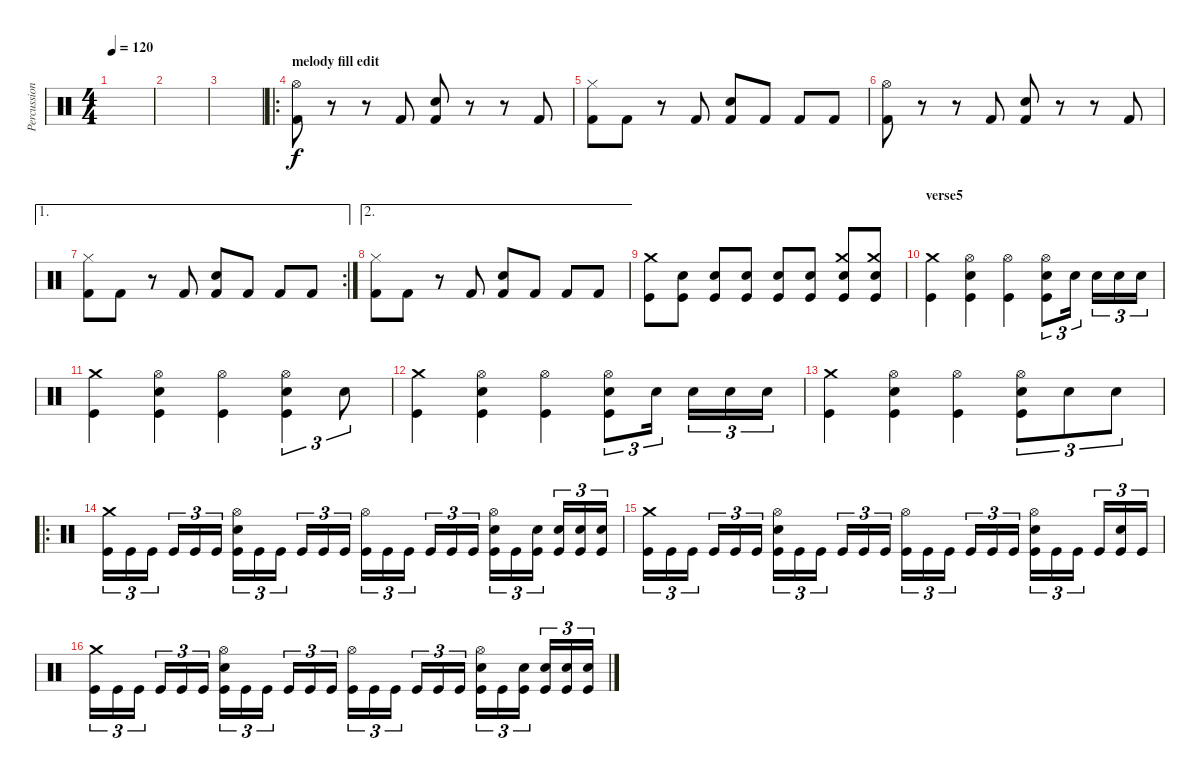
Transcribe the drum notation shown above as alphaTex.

\track ("Percussion" "Percussion") {instrument percussion}
\staff {score}
\articulation defaults
\ts (4 4)
\tempo 120
\clef neutral
\ks c
|
|
|
\ro
\section ("" "melody fill edit")
("Kick (hit) 2" "Hi-Hat (open)").8 r.8 r.8 "Kick (hit) 2".8 ("Kick (hit) 2" "Snare (hit) 2").8 r.8 r.8 "Kick (hit) 2".8 |
("Kick (hit) 2" "Hi-Hat (closed)").8 "Kick (hit) 2".8 r.8 "Kick (hit) 2".8 ("Kick (hit) 2" "Snare (hit) 2").8 "Kick (hit) 2".8 "Kick (hit) 2".8 "Kick (hit) 2".8 |
("Kick (hit) 2" "Hi-Hat (open)").8 r.8 r.8 "Kick (hit) 2".8 ("Kick (hit) 2" "Snare (hit) 2").8 r.8 r.8 "Kick (hit) 2".8 |
\ae 1
\rc 2
("Kick (hit) 2" "Hi-Hat (closed)").8 "Kick (hit) 2".8 r.8 "Kick (hit) 2".8 ("Kick (hit) 2" "Snare (hit) 2").8 "Kick (hit) 2".8 "Kick (hit) 2".8 "Kick (hit) 2".8 |
\ae 2
("Kick (hit) 2" "Hi-Hat (closed)").8 "Kick (hit) 2".8 r.8 "Kick (hit) 2".8 ("Kick (hit) 2" "Snare (hit) 2").8 "Kick (hit) 2".8 "Kick (hit) 2".8 "Kick (hit) 2".8 |
("Crash medium (hit)" "Kick (hit)").8 ("Snare (hit) 2" "Kick (hit)").8 ("Snare (hit) 2" "Kick (hit)").8 ("Snare (hit) 2" "Kick (hit)").8 ("Snare (hit) 2" "Kick (hit)").8 ("Snare (hit) 2" "Kick (hit)").8 ("Crash medium (hit)" "Snare (hit) 2" "Kick (hit)").8 ("Crash medium (hit)" "Snare (hit) 2" "Kick (hit)").8 |
\section ("" "verse5")
("Crash medium (hit)" "Kick (hit)").4 ("Snare (hit) 2" "Hi-Hat (open)" "Kick (hit)").4 ("Hi-Hat (open)" "Kick (hit)").4 ("Snare (hit) 2" "Hi-Hat (open)" "Kick (hit)").8{tu (3 2)} "Snare (hit) 2".16{tu (3 2)} "Snare (hit) 2".16{tu (3 2)} "Snare (hit) 2".16{tu (3 2)} "Snare (hit) 2".16{tu (3 2)} |
("Crash medium (hit)" "Kick (hit)").4 ("Snare (hit) 2" "Hi-Hat (open)" "Kick (hit)").4 ("Hi-Hat (open)" "Kick (hit)").4 ("Snare (hit) 2" "Hi-Hat (open)" "Kick (hit)").4{tu (3 2)} "Snare (hit) 2".8{tu (3 2)} |
("Crash medium (hit)" "Kick (hit)").4 ("Snare (hit) 2" "Hi-Hat (open)" "Kick (hit)").4 ("Hi-Hat (open)" "Kick (hit)").4 ("Snare (hit) 2" "Hi-Hat (open)" "Kick (hit)").8{tu (3 2)} "Snare (hit) 2".16{tu (3 2)} "Snare (hit) 2".16{tu (3 2)} "Snare (hit) 2".16{tu (3 2)} "Snare (hit) 2".16{tu (3 2)} |
("Crash medium (hit)" "Kick (hit)").4 ("Snare (hit) 2" "Hi-Hat (open)" "Kick (hit)").4 ("Hi-Hat (open)" "Kick (hit)").4 ("Snare (hit) 2" "Hi-Hat (open)" "Kick (hit)").8{tu (3 2)} "Snare (hit) 2".8{tu (3 2)} "Snare (hit) 2".8{tu (3 2)} |
\ro
("Crash medium (hit)" "Kick (hit)").16{tu (3 2)} "Kick (hit)".16{tu (3 2)} "Kick (hit)".16{tu (3 2)} "Kick (hit)".16{tu (3 2)} "Kick (hit)".16{tu (3 2)} "Kick (hit)".16{tu (3 2)} ("Snare (hit) 2" "Hi-Hat (open)" "Kick (hit)").16{tu (3 2)} "Kick (hit)".16{tu (3 2)} "Kick (hit)".16{tu (3 2)} "Kick (hit)".16{tu (3 2)} "Kick (hit)".16{tu (3 2)} "Kick (hit)".16{tu (3 2)} ("Hi-Hat (open)" "Kick (hit)").16{tu (3 2)} "Kick (hit)".16{tu (3 2)} "Kick (hit)".16{tu (3 2)} "Kick (hit)".16{tu (3 2)} "Kick (hit)".16{tu (3 2)} "Kick (hit)".16{tu (3 2)} ("Snare (hit) 2" "Hi-Hat (open)" "Kick (hit)").16{tu (3 2)} "Kick (hit)".16{tu (3 2)} ("Snare (hit) 2" "Kick (hit)").16{tu (3 2)} ("Snare (hit) 2" "Kick (hit)").16{tu (3 2)} ("Snare (hit) 2" "Kick (hit)").16{tu (3 2)} ("Snare (hit) 2" "Kick (hit)").16{tu (3 2)} |
("Crash medium (hit)" "Kick (hit)").16{tu (3 2)} "Kick (hit)".16{tu (3 2)} "Kick (hit)".16{tu (3 2)} "Kick (hit)".16{tu (3 2)} "Kick (hit)".16{tu (3 2)} "Kick (hit)".16{tu (3 2)} ("Snare (hit) 2" "Hi-Hat (open)" "Kick (hit)").16{tu (3 2)} "Kick (hit)".16{tu (3 2)} "Kick (hit)".16{tu (3 2)} "Kick (hit)".16{tu (3 2)} "Kick (hit)".16{tu (3 2)} "Kick (hit)".16{tu (3 2)} ("Hi-Hat (open)" "Kick (hit)").16{tu (3 2)} "Kick (hit)".16{tu (3 2)} "Kick (hit)".16{tu (3 2)} "Kick (hit)".16{tu (3 2)} "Kick (hit)".16{tu (3 2)} "Kick (hit)".16{tu (3 2)} ("Snare (hit) 2" "Hi-Hat (open)" "Kick (hit)").16{tu (3 2)} "Kick (hit)".16{tu (3 2)} "Kick (hit)".16{tu (3 2)} "Kick (hit)".16{tu (3 2)} ("Snare (hit) 2" "Kick (hit)").16{tu (3 2)} "Kick (hit)".16{tu (3 2)} |
("Crash medium (hit)" "Kick (hit)").16{tu (3 2)} "Kick (hit)".16{tu (3 2)} "Kick (hit)".16{tu (3 2)} "Kick (hit)".16{tu (3 2)} "Kick (hit)".16{tu (3 2)} "Kick (hit)".16{tu (3 2)} ("Snare (hit) 2" "Hi-Hat (open)" "Kick (hit)").16{tu (3 2)} "Kick (hit)".16{tu (3 2)} "Kick (hit)".16{tu (3 2)} "Kick (hit)".16{tu (3 2)} "Kick (hit)".16{tu (3 2)} "Kick (hit)".16{tu (3 2)} ("Hi-Hat (open)" "Kick (hit)").16{tu (3 2)} "Kick (hit)".16{tu (3 2)} "Kick (hit)".16{tu (3 2)} "Kick (hit)".16{tu (3 2)} "Kick (hit)".16{tu (3 2)} "Kick (hit)".16{tu (3 2)} ("Snare (hit) 2" "Hi-Hat (open)" "Kick (hit)").16{tu (3 2)} "Kick (hit)".16{tu (3 2)} ("Snare (hit) 2" "Kick (hit)").16{tu (3 2)} ("Snare (hit) 2" "Kick (hit)").16{tu (3 2)} ("Snare (hit) 2" "Kick (hit)").16{tu (3 2)} ("Snare (hit) 2" "Kick (hit)").16{tu (3 2)}
